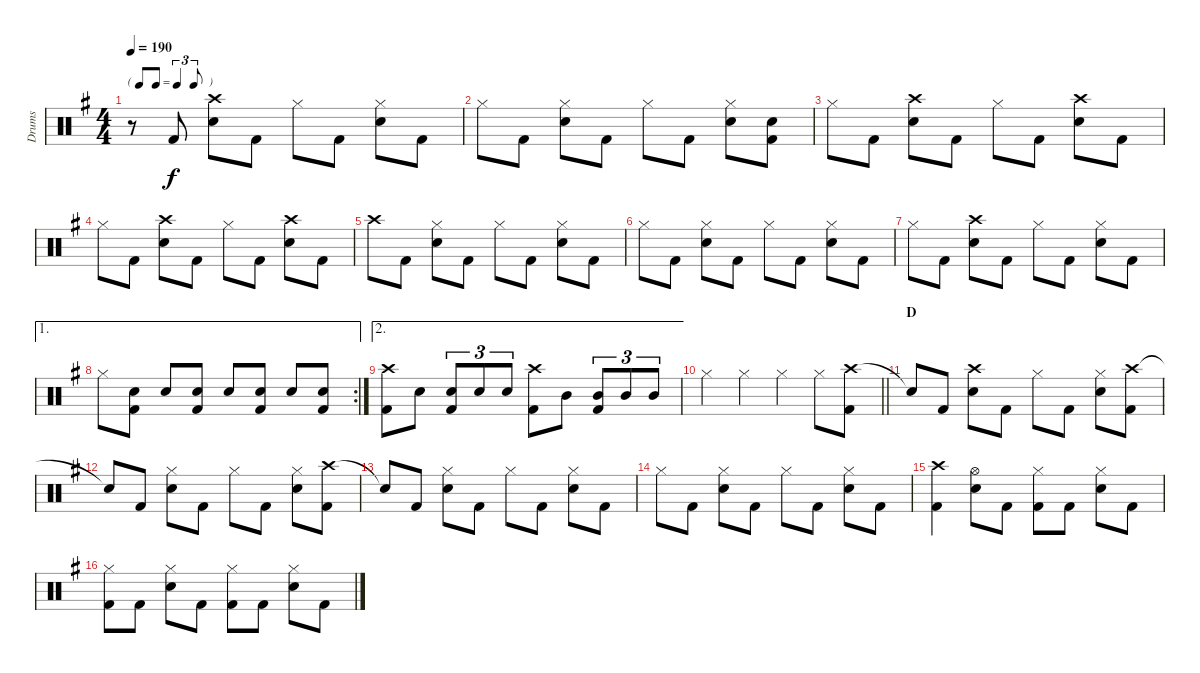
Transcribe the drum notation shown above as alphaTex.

\track ("Drums" "Drums") {instrument percussion}
\staff {score}
\articulation defaults
\ts (4 4)
\tf triplet8th
\tempo 190
\clef neutral
\ks g
r.8{dy f} "Kick (hit) 2".8 ("Crash high (hit)" "Snare (hit) 2").8 "Kick (hit) 2".8 "Hi-Hat (closed)".8 "Kick (hit) 2".8 ("Hi-Hat (closed)" "Snare (hit) 2").8 "Kick (hit) 2".8 |
"Hi-Hat (closed)".8 "Kick (hit) 2".8 ("Hi-Hat (closed)" "Snare (hit) 2").8 "Kick (hit) 2".8 "Hi-Hat (closed)".8 "Kick (hit) 2".8 ("Hi-Hat (closed)" "Snare (hit) 2").8 ("Snare (hit) 2" "Kick (hit) 2").8 |
"Hi-Hat (closed)".8 "Kick (hit) 2".8 ("Crash high (hit)" "Snare (hit) 2").8 "Kick (hit) 2".8 "Hi-Hat (closed)".8 "Kick (hit) 2".8 ("Crash high (hit)" "Snare (hit) 2").8 "Kick (hit) 2".8 |
"Hi-Hat (closed)".8 "Kick (hit) 2".8 ("Crash high (hit)" "Snare (hit) 2").8 "Kick (hit) 2".8 "Hi-Hat (closed)".8 "Kick (hit) 2".8 ("Crash high (hit)" "Snare (hit) 2").8 "Kick (hit) 2".8 |
"Crash high (hit)".8 "Kick (hit) 2".8 ("Hi-Hat (closed)" "Snare (hit) 2").8 "Kick (hit) 2".8 "Hi-Hat (closed)".8 "Kick (hit) 2".8 ("Hi-Hat (closed)" "Snare (hit) 2").8 "Kick (hit) 2".8 |
"Hi-Hat (closed)".8 "Kick (hit) 2".8 ("Hi-Hat (closed)" "Snare (hit) 2").8 "Kick (hit) 2".8 "Hi-Hat (closed)".8 "Kick (hit) 2".8 ("Hi-Hat (closed)" "Snare (hit) 2").8 "Kick (hit) 2".8 |
"Hi-Hat (closed)".8 "Kick (hit) 2".8 ("Crash high (hit)" "Snare (hit) 2").8 "Kick (hit) 2".8 "Hi-Hat (closed)".8 "Kick (hit) 2".8 ("Hi-Hat (closed)" "Snare (hit) 2").8 "Kick (hit) 2".8 |
\ae 1
\rc 2 "Hi-Hat (closed)".8
("Snare (hit) 2" "Kick (hit) 2").8 "Snare (hit) 2".8 ("Snare (hit) 2" "Kick (hit) 2").8 "Snare (hit) 2".8 ("Snare (hit) 2" "Kick (hit) 2").8 "Snare (hit) 2".8 ("Snare (hit) 2" "Kick (hit) 2").8 |
\ae 2
("Crash high (hit)" "Kick (hit) 2").8 "Snare (hit) 2".8 ("Snare (hit) 2" "Kick (hit) 2").8{tu (3 2)} "Snare (hit) 2".8{tu (3 2)} "Snare (hit) 2".8{tu (3 2)} ("Crash high (hit)" "Kick (hit) 2").8 "Mid Tom (hit)".8 ("Mid Tom (hit)" "Kick (hit) 2").8{tu (3 2)} "Mid Tom (hit)".8{tu (3 2)} "Mid Tom (hit)".8{tu (3 2)} |
\barLineRight lightlight "Hi-Hat (closed)".4 "Hi-Hat (closed)".4 "Hi-Hat (closed)".4 "Hi-Hat (closed)".8
("Crash high (hit)" "Kick (hit) 2").8 |
\section ("" "D")
"Snare (hit)"{t}.8 "Kick (hit) 2".8 ("Crash high (hit)" "Snare (hit) 2").8 "Kick (hit) 2".8 "Hi-Hat (closed)".8 "Kick (hit) 2".8 ("Hi-Hat (closed)" "Snare (hit) 2").8 ("Crash high (hit)" "Kick (hit) 2").8 |
"Snare (hit)"{t}.8 "Kick (hit) 2".8 ("Hi-Hat (closed)" "Snare (hit) 2").8 "Kick (hit) 2".8 "Hi-Hat (closed)".8 "Kick (hit) 2".8 ("Hi-Hat (closed)" "Snare (hit) 2").8 ("Crash high (hit)" "Kick (hit) 2").8 |
"Snare (hit)"{t}.8 "Kick (hit) 2".8 ("Hi-Hat (closed)" "Snare (hit) 2").8 "Kick (hit) 2".8 "Hi-Hat (closed)".8 "Kick (hit) 2".8 ("Hi-Hat (closed)" "Snare (hit) 2").8 "Kick (hit) 2".8 |
"Hi-Hat (closed)".8 "Kick (hit) 2".8 ("Hi-Hat (closed)" "Snare (hit) 2").8 "Kick (hit) 2".8 "Hi-Hat (closed)".8 "Kick (hit) 2".8 ("Hi-Hat (closed)" "Snare (hit) 2").8 "Kick (hit) 2".8 |
("Crash high (hit)" "Kick (hit) 2").4 ("Hi-Hat (open)" "Snare (hit) 2").8 "Kick (hit) 2".8 ("Hi-Hat (closed)" "Kick (hit) 2").8 "Kick (hit) 2".8 ("Hi-Hat (closed)" "Snare (hit) 2").8 "Kick (hit) 2".8 |
("Hi-Hat (closed)" "Kick (hit) 2").8 "Kick (hit) 2".8 ("Hi-Hat (closed)" "Snare (hit) 2").8 "Kick (hit) 2".8 ("Hi-Hat (closed)" "Kick (hit) 2").8 "Kick (hit) 2".8 ("Hi-Hat (closed)" "Snare (hit) 2").8 "Kick (hit) 2".8
